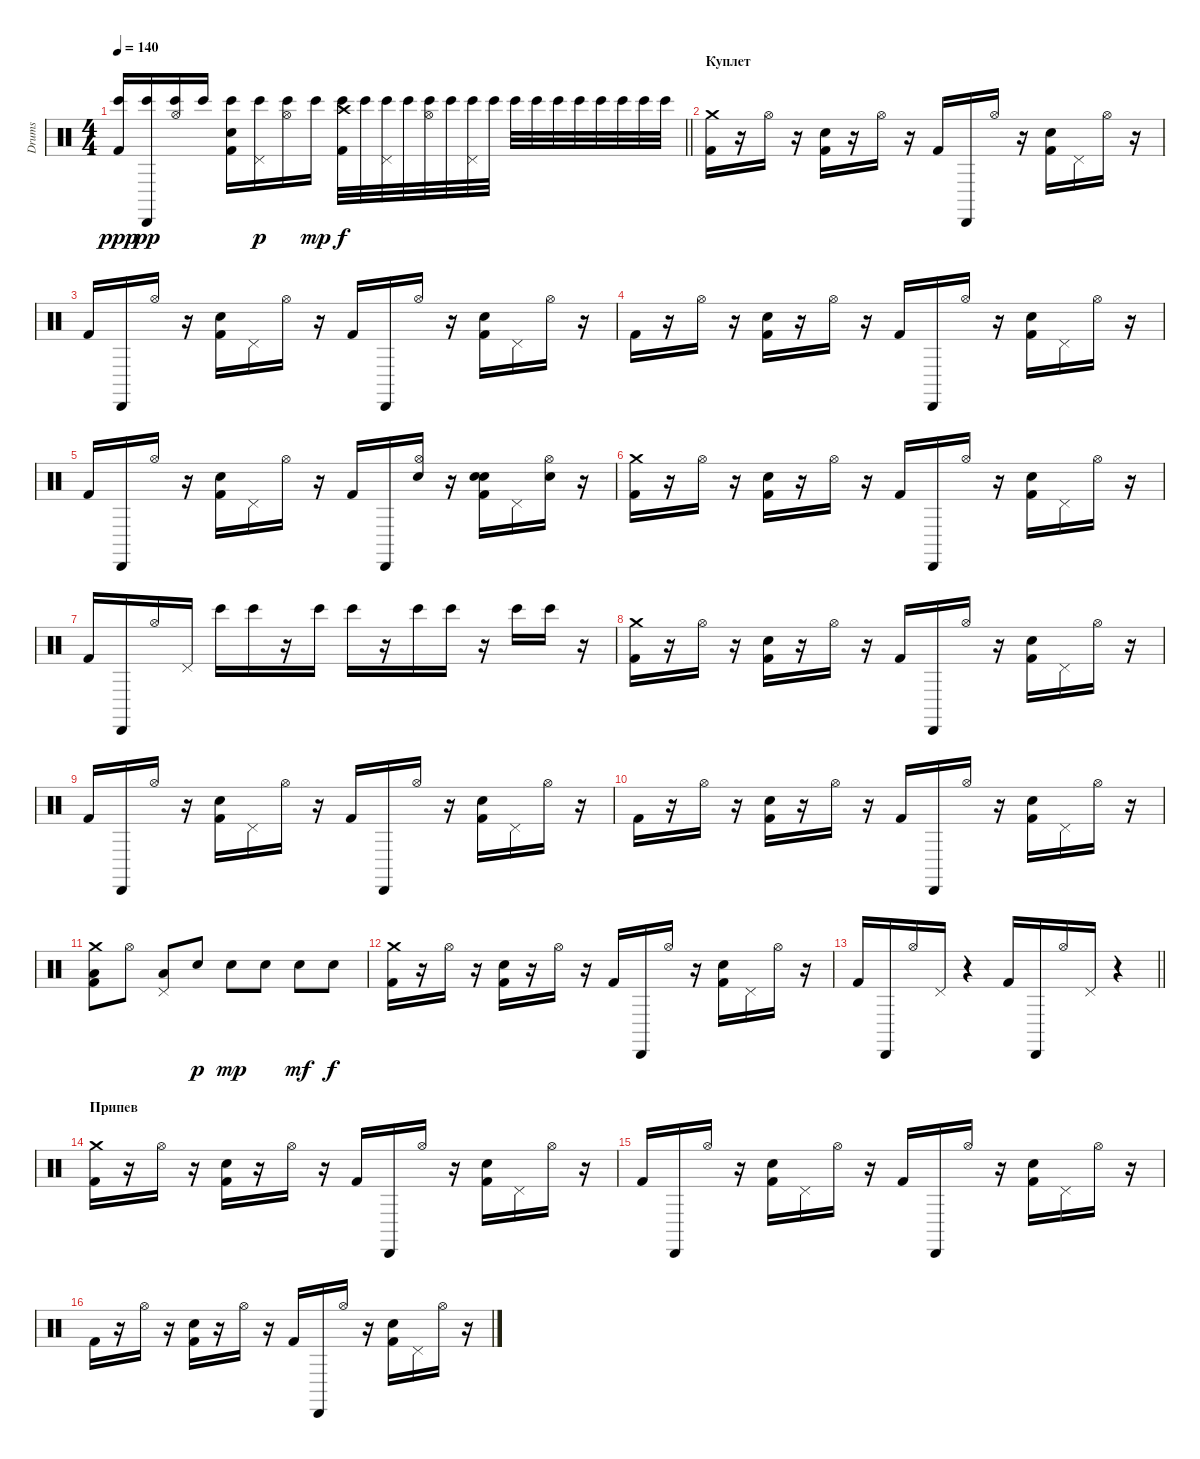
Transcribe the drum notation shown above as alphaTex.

\track ("Drums" "Drums") {instrument percussion}
\staff {score}
\articulation defaults
\ts (4 4)
\tempo 140
\clef neutral
\barLineRight lightlight
\ks c
("Kick (hit) 2" "Bongo High (hit)").16{dy ppp} ("Cabasa (hit)" "Bongo High (hit)").16{dy pp} ("Bongo High (hit)" "Hi-Hat (open)").16 "Bongo High (hit)".16 ("Kick (hit) 2" "Hand Clap (hit)" "Bongo High (hit)").16 ("Bongo High (hit)" "Pedal Hi-Hat (hit)").16{dy p} ("Hi-Hat (open)" "Bongo High (hit)").16 "Bongo High (hit)".16{dy mp} ("Crash high (hit)" "Kick (hit) 2" "Bongo High (hit)").32{dy f} "Bongo High (hit)".32 ("Pedal Hi-Hat (hit)" "Bongo High (hit)").32 "Bongo High (hit)".32 ("Hi-Hat (open)" "Bongo High (hit)").32 "Bongo High (hit)".32 ("Pedal Hi-Hat (hit)" "Bongo High (hit)").32 "Bongo High (hit)".32 "Bongo High (hit)".32 "Bongo High (hit)".32 "Bongo High (hit)".32 "Bongo High (hit)".32 "Bongo High (hit)".32 "Bongo High (hit)".32 "Bongo High (hit)".32 "Bongo High (hit)".32 |
\section ("" "Куплет")
("Kick (hit) 2" "Crash medium (hit)").16 r.16 "Hi-Hat (open)".16 r.16 ("Kick (hit) 2" "Hand Clap (hit)").16 r.16 "Hi-Hat (open)".16 r.16 "Kick (hit) 2".16 "Cabasa (hit)".16 "Hi-Hat (open)".16 r.16 ("Kick (hit) 2" "Hand Clap (hit)").16 "Pedal Hi-Hat (hit)".16 "Hi-Hat (open)".16 r.16 |
"Kick (hit) 2".16 "Cabasa (hit)".16 "Hi-Hat (open)".16 r.16 ("Hand Clap (hit)" "Kick (hit) 2").16 "Pedal Hi-Hat (hit)".16 "Hi-Hat (open)".16 r.16 "Kick (hit) 2".16 "Cabasa (hit)".16 "Hi-Hat (open)".16 r.16 ("Hand Clap (hit)" "Kick (hit) 2").16 "Pedal Hi-Hat (hit)".16 "Hi-Hat (open)".16 r.16 |
"Kick (hit) 2".16 r.16 "Hi-Hat (open)".16 r.16 ("Kick (hit) 2" "Hand Clap (hit)").16 r.16 "Hi-Hat (open)".16 r.16 "Kick (hit) 2".16 "Cabasa (hit)".16 "Hi-Hat (open)".16 r.16 ("Hand Clap (hit)" "Kick (hit) 2").16 "Pedal Hi-Hat (hit)".16 "Hi-Hat (open)".16 r.16 |
"Kick (hit) 2".16 "Cabasa (hit)".16 "Hi-Hat (open)".16 r.16 ("Hand Clap (hit)" "Kick (hit) 2").16 "Pedal Hi-Hat (hit)".16 "Hi-Hat (open)".16 r.16 "Kick (hit) 2".16 "Cabasa (hit)".16 ("Snare (hit) 2" "Hi-Hat (open)").16 r.16 ("Hand Clap (hit)" "Kick (hit) 2" "Snare (hit) 2").16 "Pedal Hi-Hat (hit)".16 ("Snare (hit) 2" "Hi-Hat (open)").16 r.16 |
("Crash medium (hit)" "Kick (hit) 2").16 r.16 "Hi-Hat (open)".16 r.16 ("Hand Clap (hit)" "Kick (hit) 2").16 r.16 "Hi-Hat (open)".16 r.16 "Kick (hit) 2".16 "Cabasa (hit)".16 "Hi-Hat (open)".16 r.16 ("Hand Clap (hit)" "Kick (hit) 2").16 "Pedal Hi-Hat (hit)".16 "Hi-Hat (open)".16 r.16 |
"Kick (hit) 2".16 "Cabasa (hit)".16 "Hi-Hat (open)".16 "Pedal Hi-Hat (hit)".16 "Bongo High (hit)".16 "Bongo High (hit)".16 r.16 "Bongo High (hit)".16 "Bongo High (hit)".16 r.16 "Bongo High (hit)".16 "Bongo High (hit)".16 r.16 "Bongo High (hit)".16 "Bongo High (hit)".16 r.16 |
("Kick (hit) 2" "Crash medium (hit)").16 r.16 "Hi-Hat (open)".16 r.16 ("Kick (hit) 2" "Hand Clap (hit)").16 r.16 "Hi-Hat (open)".16 r.16 "Kick (hit) 2".16 "Cabasa (hit)".16 "Hi-Hat (open)".16 r.16 ("Kick (hit) 2" "Hand Clap (hit)").16 "Pedal Hi-Hat (hit)".16 "Hi-Hat (open)".16 r.16 |
"Kick (hit) 2".16 "Cabasa (hit)".16 "Hi-Hat (open)".16 r.16 ("Hand Clap (hit)" "Kick (hit) 2").16 "Pedal Hi-Hat (hit)".16 "Hi-Hat (open)".16 r.16 "Kick (hit) 2".16 "Cabasa (hit)".16 "Hi-Hat (open)".16 r.16 ("Hand Clap (hit)" "Kick (hit) 2").16 "Pedal Hi-Hat (hit)".16 "Hi-Hat (open)".16 r.16 |
"Kick (hit) 2".16 r.16 "Hi-Hat (open)".16 r.16 ("Kick (hit) 2" "Hand Clap (hit)").16 r.16 "Hi-Hat (open)".16 r.16 "Kick (hit) 2".16 "Cabasa (hit)".16 "Hi-Hat (open)".16 r.16 ("Hand Clap (hit)" "Kick (hit) 2").16 "Pedal Hi-Hat (hit)".16 "Hi-Hat (open)".16 r.16 |
("Kick (hit) 2" "Crash medium (hit)" "Low Tom (hit)").8 "Hi-Hat (open)".8 ("Pedal Hi-Hat (hit)" "Low Tom (hit)").8 "Snare (hit) 2".8{dy p} "Snare (hit) 2".8{dy mp} "Snare (hit) 2".8 "Snare (hit) 2".8{dy mf} "Snare (hit) 2".8{dy f} |
("Kick (hit) 2" "Crash medium (hit)").16 r.16 "Hi-Hat (open)".16 r.16 ("Hand Clap (hit)" "Kick (hit) 2").16 r.16 "Hi-Hat (open)".16 r.16 "Kick (hit) 2".16 "Cabasa (hit)".16 "Hi-Hat (open)".16 r.16 ("Hand Clap (hit)" "Kick (hit) 2").16 "Pedal Hi-Hat (hit)".16 "Hi-Hat (open)".16 r.16 |
\barLineRight lightlight "Kick (hit) 2".16 "Cabasa (hit)".16 "Hi-Hat (open)".16 "Pedal Hi-Hat (hit)".16
r.4 "Kick (hit) 2".16 "Cabasa (hit)".16 "Hi-Hat (open)".16 "Pedal Hi-Hat (hit)".16 r.4 |
\section ("" "Припев")
("Crash medium (hit)" "Kick (hit) 2").16 r.16 "Hi-Hat (open)".16 r.16 ("Kick (hit) 2" "Hand Clap (hit)").16 r.16 "Hi-Hat (open)".16 r.16 "Kick (hit) 2".16 "Cabasa (hit)".16 "Hi-Hat (open)".16 r.16 ("Hand Clap (hit)" "Kick (hit) 2").16 "Pedal Hi-Hat (hit)".16 "Hi-Hat (open)".16 r.16 |
"Kick (hit) 2".16 "Cabasa (hit)".16 "Hi-Hat (open)".16 r.16 ("Kick (hit) 2" "Hand Clap (hit)").16 "Pedal Hi-Hat (hit)".16 "Hi-Hat (open)".16 r.16 "Kick (hit) 2".16 "Cabasa (hit)".16 "Hi-Hat (open)".16 r.16 ("Hand Clap (hit)" "Kick (hit) 2").16 "Pedal Hi-Hat (hit)".16 "Hi-Hat (open)".16 r.16 |
"Kick (hit) 2".16 r.16 "Hi-Hat (open)".16 r.16 ("Hand Clap (hit)" "Kick (hit) 2").16 r.16 "Hi-Hat (open)".16 r.16 "Kick (hit) 2".16 "Cabasa (hit)".16 "Hi-Hat (open)".16 r.16 ("Hand Clap (hit)" "Kick (hit) 2").16 "Pedal Hi-Hat (hit)".16 "Hi-Hat (open)".16 r.16
